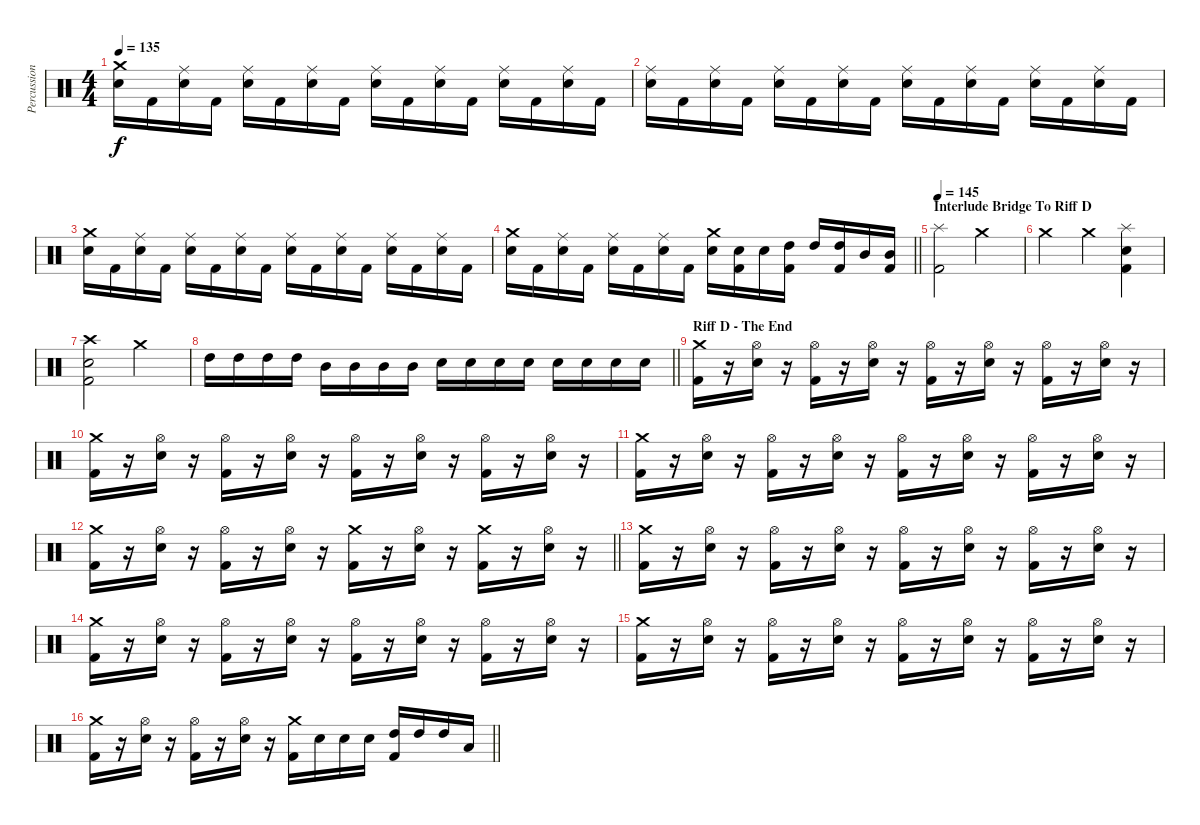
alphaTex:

\track ("Percussion" "Percussion") {instrument percussion}
\staff {score}
\articulation defaults
\ts (4 4)
\tempo 135
\clef neutral
\ks c
("Crash medium (hit)" "Snare (hit) 2").16{dy f} "Kick (hit) 2".16 ("Ride (middle)" "Snare (hit) 2").16 "Kick (hit) 2".16 ("Ride (middle)" "Snare (hit) 2").16 "Kick (hit) 2".16 ("Ride (middle)" "Snare (hit) 2").16 "Kick (hit) 2".16 ("Ride (middle)" "Snare (hit) 2").16 "Kick (hit) 2".16 ("Ride (middle)" "Snare (hit) 2").16 "Kick (hit) 2".16 ("Ride (middle)" "Snare (hit) 2").16 "Kick (hit) 2".16 ("Ride (middle)" "Snare (hit) 2").16 "Kick (hit) 2".16 |
("Ride (middle)" "Snare (hit) 2").16 "Kick (hit) 2".16 ("Ride (middle)" "Snare (hit) 2").16 "Kick (hit) 2".16 ("Ride (middle)" "Snare (hit) 2").16 "Kick (hit) 2".16 ("Ride (middle)" "Snare (hit) 2").16 "Kick (hit) 2".16 ("Ride (middle)" "Snare (hit) 2").16 "Kick (hit) 2".16 ("Ride (middle)" "Snare (hit) 2").16 "Kick (hit) 2".16 ("Ride (middle)" "Snare (hit) 2").16 "Kick (hit) 2".16 ("Ride (middle)" "Snare (hit) 2").16 "Kick (hit) 2".16 |
("Crash medium (hit)" "Snare (hit) 2").16 "Kick (hit) 2".16 ("Ride (middle)" "Snare (hit) 2").16 "Kick (hit) 2".16 ("Ride (middle)" "Snare (hit) 2").16 "Kick (hit) 2".16 ("Ride (middle)" "Snare (hit) 2").16 "Kick (hit) 2".16 ("Ride (middle)" "Snare (hit) 2").16 "Kick (hit) 2".16 ("Ride (middle)" "Snare (hit) 2").16 "Kick (hit) 2".16 ("Ride (middle)" "Snare (hit) 2").16 "Kick (hit) 2".16 ("Ride (middle)" "Snare (hit) 2").16 "Kick (hit) 2".16 |
\barLineRight lightlight
("Crash medium (hit)" "Snare (hit) 2").16 "Kick (hit) 2".16 ("Ride (middle)" "Snare (hit) 2").16 "Kick (hit) 2".16 ("Ride (middle)" "Snare (hit) 2").16 "Kick (hit) 2".16 ("Ride (middle)" "Snare (hit) 2").16 "Kick (hit) 2".16 ("Crash medium (hit)" "Snare (hit) 2").16 ("Snare (hit) 2" "Kick (hit) 2").16 "Snare (hit) 2".16 ("High Tom (hit)" "Kick (hit) 2").16 "High Tom (hit)".16 ("High Tom (hit)" "Kick (hit) 2").16 "Mid Tom (hit)".16 ("Mid Tom (hit)" "Kick (hit) 2").16 |
\section ("" "Interlude Bridge To Riff D")
\tempo 145
("Splash (hit)" "Kick (hit) 2").2 "Crash medium (hit)".2 |
"Crash medium (hit)".2 "Crash medium (hit)".4 ("Splash (hit)" "Snare (hit) 2" "Kick (hit) 2").4 |
("Crash high (hit)" "Snare (hit) 2" "Kick (hit) 2").2 "Crash medium (hit)".2 |
\barLineRight lightlight "High Tom (hit)".16 "High Tom (hit)".16 "High Tom (hit)".16 "High Tom (hit)".16 "Mid Tom (hit)".16 "Mid Tom (hit)".16 "Mid Tom (hit)".16 "Mid Tom (hit)".16 "Electric Snare (hit)".16 "Electric Snare (hit)".16 "Electric Snare (hit)".16 "Electric Snare (hit)".16 "Snare (hit) 2".16 "Snare (hit) 2".16 "Snare (hit) 2".16 "Snare (hit) 2".16
|
\section ("" "Riff D - The End")
("Crash medium (hit)" "Kick (hit) 2").16 r.16 ("Hi-Hat (open)" "Snare (hit) 2").16 r.16 ("Hi-Hat (open)" "Kick (hit) 2").16 r.16 ("Hi-Hat (open)" "Snare (hit) 2").16 r.16 ("Hi-Hat (open)" "Kick (hit) 2").16 r.16 ("Hi-Hat (open)" "Snare (hit) 2").16 r.16 ("Hi-Hat (open)" "Kick (hit) 2").16 r.16 ("Hi-Hat (open)" "Snare (hit) 2").16 r.16 |
("Crash medium (hit)" "Kick (hit) 2").16 r.16 ("Hi-Hat (open)" "Snare (hit) 2").16 r.16 ("Hi-Hat (open)" "Kick (hit) 2").16 r.16 ("Hi-Hat (open)" "Snare (hit) 2").16 r.16 ("Hi-Hat (open)" "Kick (hit) 2").16 r.16 ("Hi-Hat (open)" "Snare (hit) 2").16 r.16 ("Hi-Hat (open)" "Kick (hit) 2").16 r.16 ("Hi-Hat (open)" "Snare (hit) 2").16 r.16 |
("Crash medium (hit)" "Kick (hit) 2").16 r.16 ("Hi-Hat (open)" "Snare (hit) 2").16 r.16 ("Hi-Hat (open)" "Kick (hit) 2").16 r.16 ("Hi-Hat (open)" "Snare (hit) 2").16 r.16 ("Hi-Hat (open)" "Kick (hit) 2").16 r.16 ("Hi-Hat (open)" "Snare (hit) 2").16 r.16 ("Hi-Hat (open)" "Kick (hit) 2").16 r.16 ("Hi-Hat (open)" "Snare (hit) 2").16 r.16 |
\barLineRight lightlight
("Crash medium (hit)" "Kick (hit) 2").16 r.16 ("Hi-Hat (open)" "Snare (hit) 2").16 r.16 ("Hi-Hat (open)" "Kick (hit) 2").16 r.16 ("Hi-Hat (open)" "Snare (hit) 2").16 r.16 ("Crash medium (hit)" "Kick (hit) 2").16 r.16 ("Hi-Hat (open)" "Snare (hit) 2").16 r.16 ("Crash medium (hit)" "Kick (hit) 2").16 r.16 ("Hi-Hat (open)" "Snare (hit) 2").16 r.16 |
("Crash medium (hit)" "Kick (hit) 2").16 r.16 ("Hi-Hat (open)" "Snare (hit) 2").16 r.16 ("Hi-Hat (open)" "Kick (hit) 2").16 r.16 ("Hi-Hat (open)" "Snare (hit) 2").16 r.16 ("Hi-Hat (open)" "Kick (hit) 2").16 r.16 ("Hi-Hat (open)" "Snare (hit) 2").16 r.16 ("Hi-Hat (open)" "Kick (hit) 2").16 r.16 ("Hi-Hat (open)" "Snare (hit) 2").16 r.16 |
("Crash medium (hit)" "Kick (hit) 2").16 r.16 ("Hi-Hat (open)" "Snare (hit) 2").16 r.16 ("Hi-Hat (open)" "Kick (hit) 2").16 r.16 ("Hi-Hat (open)" "Snare (hit) 2").16 r.16 ("Hi-Hat (open)" "Kick (hit) 2").16 r.16 ("Hi-Hat (open)" "Snare (hit) 2").16 r.16 ("Hi-Hat (open)" "Kick (hit) 2").16 r.16 ("Hi-Hat (open)" "Snare (hit) 2").16 r.16 |
("Crash medium (hit)" "Kick (hit) 2").16 r.16 ("Hi-Hat (open)" "Snare (hit) 2").16 r.16 ("Hi-Hat (open)" "Kick (hit) 2").16 r.16 ("Hi-Hat (open)" "Snare (hit) 2").16 r.16 ("Hi-Hat (open)" "Kick (hit) 2").16 r.16 ("Hi-Hat (open)" "Snare (hit) 2").16 r.16 ("Hi-Hat (open)" "Kick (hit) 2").16 r.16 ("Hi-Hat (open)" "Snare (hit) 2").16 r.16 |
\barLineRight lightlight
("Crash medium (hit)" "Kick (hit) 2").16 r.16 ("Hi-Hat (open)" "Snare (hit) 2").16 r.16 ("Hi-Hat (open)" "Kick (hit) 2").16 r.16 ("Hi-Hat (open)" "Snare (hit) 2").16 r.16 ("Crash medium (hit)" "Kick (hit) 2").16 "Snare (hit) 2".16 "Snare (hit) 2".16 "Snare (hit) 2".16 ("High Tom (hit)" "Kick (hit) 2").16 "High Tom (hit)".16 "High Tom (hit)".16 "Low Tom (hit)".16
